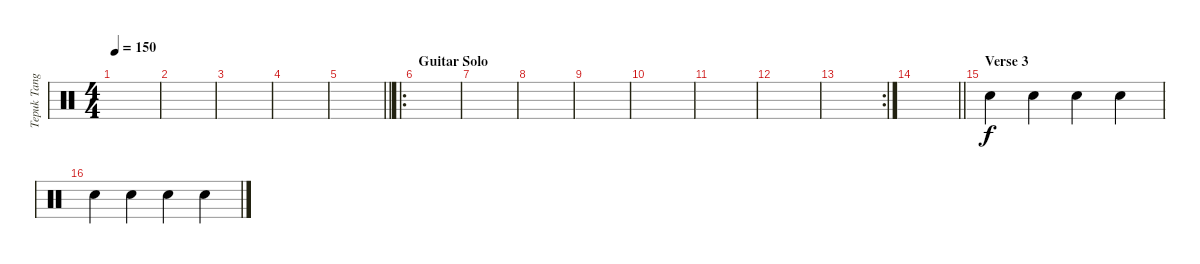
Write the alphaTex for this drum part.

\track ("Tepuk Tangan" "Tepuk Tang") {instrument percussion}
\staff {score}
\articulation defaults
\ts (4 4)
\tempo 150
\clef neutral
\ks c
|
|
|
|
\barLineRight lightlight
|
\ro
\section ("" "Guitar Solo")
|
|
|
|
|
|
|
\rc 2
|
\barLineRight lightlight
|
\section ("" "Verse 3")
"Hand Clap (hit)".4 "Hand Clap (hit)".4 "Hand Clap (hit)".4 "Hand Clap (hit)".4 |
"Hand Clap (hit)".4 "Hand Clap (hit)".4 "Hand Clap (hit)".4 "Hand Clap (hit)".4
